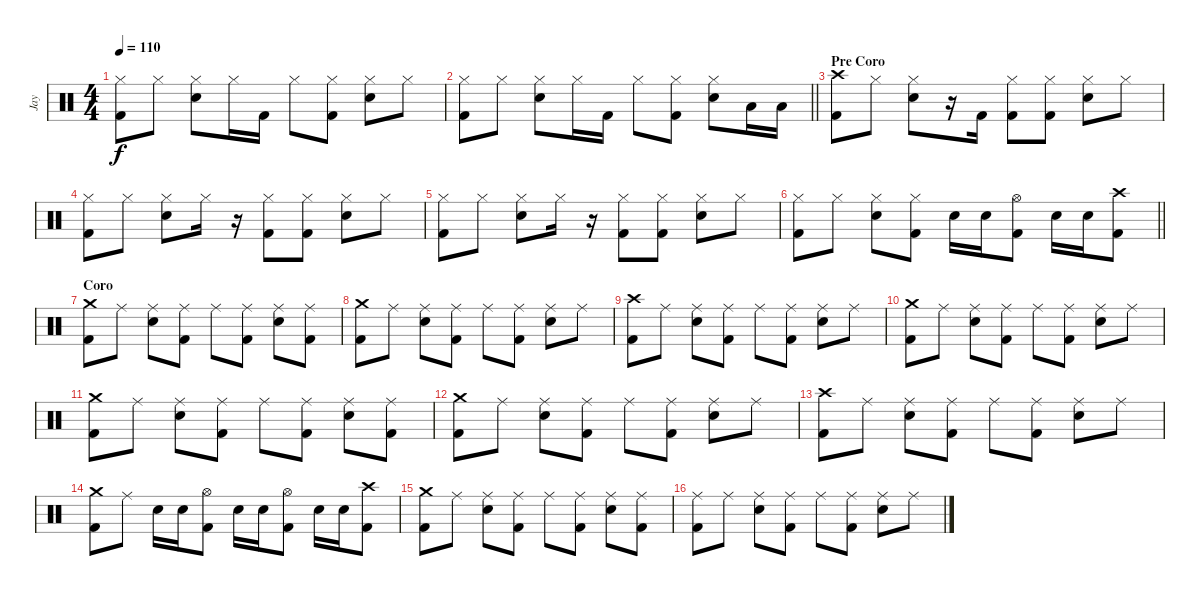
\track ("Jay" "Jay") {instrument percussion}
\staff {score}
\articulation defaults
\ts (4 4)
\tempo 110
\clef neutral
\ks c
("Hi-Hat (closed)" "Kick (hit) 2").8{dy f} "Hi-Hat (closed)".8 ("Hi-Hat (closed)" "Electric Snare (hit)").8 "Hi-Hat (closed)".16 "Kick (hit) 2".16 "Hi-Hat (closed)".8 ("Hi-Hat (closed)" "Kick (hit) 2").8 ("Hi-Hat (closed)" "Electric Snare (hit)").8 "Hi-Hat (closed)".8 |
\barLineRight lightlight
("Hi-Hat (closed)" "Kick (hit) 2").8 "Hi-Hat (closed)".8 ("Hi-Hat (closed)" "Electric Snare (hit)").8 "Hi-Hat (closed)".16 "Kick (hit) 2".16 "Hi-Hat (closed)".8 ("Hi-Hat (closed)" "Kick (hit) 2").8 ("Hi-Hat (closed)" "Electric Snare (hit)").8 "Low Tom (hit)".16 "Low Tom (hit)".16 |
\section ("" "Pre Coro")
("Crash high (hit)" "Kick (hit) 2").8 "Hi-Hat (closed)".8 ("Hi-Hat (closed)" "Electric Snare (hit)").8 r.16 "Kick (hit) 2".16 ("Hi-Hat (closed)" "Kick (hit) 2").8 ("Hi-Hat (closed)" "Kick (hit) 2").8 ("Hi-Hat (closed)" "Electric Snare (hit)").8 "Hi-Hat (closed)".8 |
("Hi-Hat (closed)" "Kick (hit) 2").8 "Hi-Hat (closed)".8 ("Hi-Hat (closed)" "Electric Snare (hit)").8 "Hi-Hat (closed)".16 r.16 ("Hi-Hat (closed)" "Kick (hit) 2").8 ("Hi-Hat (closed)" "Kick (hit) 2").8 ("Hi-Hat (closed)" "Electric Snare (hit)").8 "Hi-Hat (closed)".8 |
("Hi-Hat (closed)" "Kick (hit) 2").8 "Hi-Hat (closed)".8 ("Hi-Hat (closed)" "Electric Snare (hit)").8 "Hi-Hat (closed)".16 r.16 ("Hi-Hat (closed)" "Kick (hit) 2").8 ("Hi-Hat (closed)" "Kick (hit) 2").8 ("Hi-Hat (closed)" "Electric Snare (hit)").8 "Hi-Hat (closed)".8 |
\barLineRight lightlight
("Hi-Hat (closed)" "Kick (hit) 2").8 "Hi-Hat (closed)".8 ("Hi-Hat (closed)" "Electric Snare (hit)").8 ("Hi-Hat (closed)" "Kick (hit) 2").8 "Electric Snare (hit)".16 "Electric Snare (hit)".16 ("Hi-Hat (open)" "Kick (hit) 2").8 "Electric Snare (hit)".16 "Electric Snare (hit)".16 ("Crash high (hit)" "Kick (hit) 2").8 |
\section ("" "Coro")
("Crash medium (hit)" "Kick (hit) 2").8 "Ride (middle)".8 ("Ride (middle)" "Electric Snare (hit)").8 ("Ride (middle)" "Kick (hit) 2").8 "Ride (middle)".8 ("Ride (middle)" "Kick (hit) 2").8 ("Ride (middle)" "Electric Snare (hit)").8 ("Ride (middle)" "Kick (hit) 2").8 |
("Crash medium (hit)" "Kick (hit) 2").8 "Ride (middle)".8 ("Ride (middle)" "Electric Snare (hit)").8 ("Ride (middle)" "Kick (hit) 2").8 "Ride (middle)".8 ("Ride (middle)" "Kick (hit) 2").8 ("Ride (middle)" "Electric Snare (hit)").8 "Ride (middle)".8 |
("Crash high (hit)" "Kick (hit) 2").8 "Ride (middle)".8 ("Ride (middle)" "Electric Snare (hit)").8 ("Ride (middle)" "Kick (hit) 2").8 "Ride (middle)".8 ("Ride (middle)" "Kick (hit) 2").8 ("Ride (middle)" "Electric Snare (hit)").8 "Ride (middle)".8 |
("Crash medium (hit)" "Kick (hit) 2").8 "Ride (middle)".8 ("Ride (middle)" "Electric Snare (hit)").8 ("Ride (middle)" "Kick (hit) 2").8 "Ride (middle)".8 ("Ride (middle)" "Kick (hit) 2").8 ("Ride (middle)" "Electric Snare (hit)").8 "Ride (middle)".8 |
("Crash medium (hit)" "Kick (hit) 2").8 "Ride (middle)".8 ("Ride (middle)" "Electric Snare (hit)").8 ("Ride (middle)" "Kick (hit) 2").8 "Ride (middle)".8 ("Ride (middle)" "Kick (hit) 2").8 ("Ride (middle)" "Electric Snare (hit)").8 ("Ride (middle)" "Kick (hit) 2").8 |
("Crash medium (hit)" "Kick (hit) 2").8 "Ride (middle)".8 ("Ride (middle)" "Electric Snare (hit)").8 ("Ride (middle)" "Kick (hit) 2").8 "Ride (middle)".8 ("Ride (middle)" "Kick (hit) 2").8 ("Ride (middle)" "Electric Snare (hit)").8 "Ride (middle)".8 |
("Crash high (hit)" "Kick (hit) 2").8 "Ride (middle)".8 ("Ride (middle)" "Electric Snare (hit)").8 ("Ride (middle)" "Kick (hit) 2").8 "Ride (middle)".8 ("Ride (middle)" "Kick (hit) 2").8 ("Ride (middle)" "Electric Snare (hit)").8 "Ride (middle)".8 |
("Crash medium (hit)" "Kick (hit) 2").8 "Ride (middle)".8 "Electric Snare (hit)".16 "Electric Snare (hit)".16 ("Hi-Hat (open)" "Kick (hit) 2").8 "Electric Snare (hit)".16 "Electric Snare (hit)".16 ("Hi-Hat (open)" "Kick (hit) 2").8 "Electric Snare (hit)".16 "Electric Snare (hit)".16 ("Crash high (hit)" "Kick (hit) 2").8 |
("Crash medium (hit)" "Kick (hit) 2").8 "Ride (middle)".8 ("Ride (middle)" "Electric Snare (hit)").8 ("Ride (middle)" "Kick (hit) 2").8 "Ride (middle)".8 ("Ride (middle)" "Kick (hit) 2").8 ("Ride (middle)" "Electric Snare (hit)").8 ("Ride (middle)" "Kick (hit) 2").8 |
("Ride (middle)" "Kick (hit) 2").8 "Ride (middle)".8 ("Ride (middle)" "Electric Snare (hit)").8 ("Ride (middle)" "Kick (hit) 2").8 "Ride (middle)".8 ("Ride (middle)" "Kick (hit) 2").8 ("Ride (middle)" "Electric Snare (hit)").8 "Ride (middle)".8
